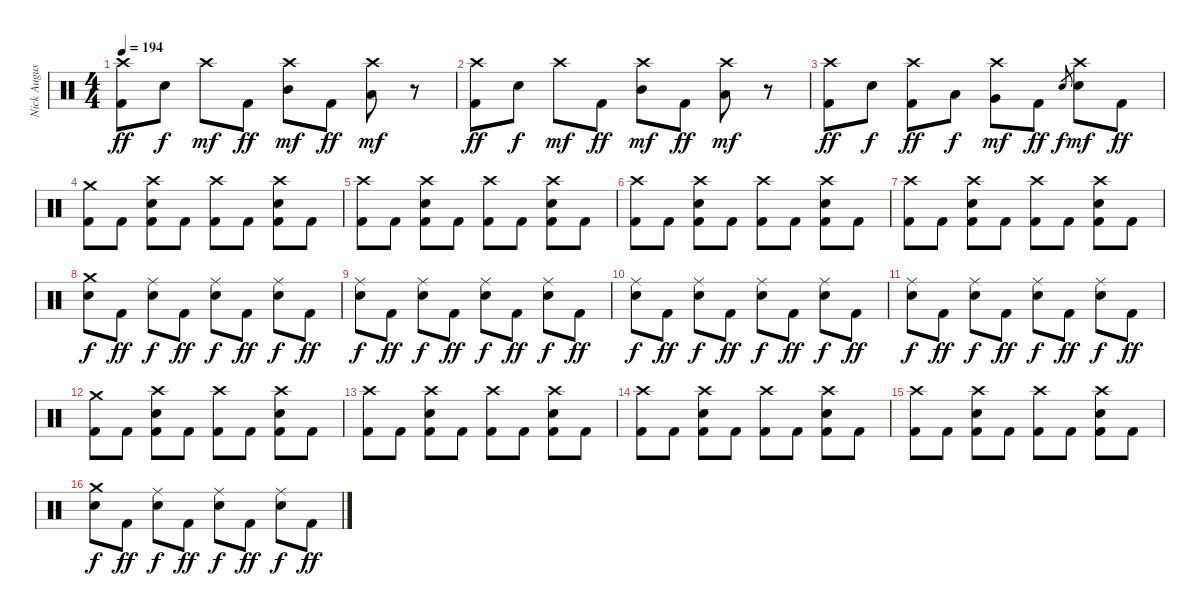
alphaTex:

\track ("Nick Augusto" "Nick Augus") {instrument percussion}
\staff {score}
\articulation defaults
\ts (4 4)
\tempo 194
\clef neutral
\ks c
("Crash high (hit)" "Kick (hit) 2").8{dy ff} "Electric Snare (hit)".8{dy f} "Crash high (hit)".8{dy mf} "Kick (hit) 2".8{dy ff} ("Crash high (hit)" "Mid Tom (hit)").8{dy mf} "Kick (hit) 2".8{dy ff} ("Crash high (hit)" "Low Tom (hit)").8{dy mf} r.8 |
("Crash high (hit)" "Kick (hit) 2").8{dy ff} "Electric Snare (hit)".8{dy f} "Crash high (hit)".8{dy mf} "Kick (hit) 2".8{dy ff} ("Crash high (hit)" "Mid Tom (hit)").8{dy mf} "Kick (hit) 2".8{dy ff} ("Crash high (hit)" "Low Tom (hit)").8{dy mf} r.8 |
("Crash high (hit)" "Kick (hit) 2").8{dy ff} "Electric Snare (hit)".8{dy f} ("Crash high (hit)" "Kick (hit) 2").8{dy ff} "Low Tom (hit)".8{dy f} ("Crash high (hit)" "Very Low Tom (hit)").8{dy mf} "Kick (hit) 2".8{dy ff} "Electric Snare (hit)".8{gr dy f} ("Crash high (hit)" "Electric Snare (hit)").8{dy mf} "Kick (hit) 2".8{dy ff} |
("Crash medium (hit)" "Kick (hit) 2").8 "Kick (hit) 2".8 ("Crash high (hit)" "Electric Snare (hit)" "Kick (hit) 2").8 "Kick (hit) 2".8 ("Crash high (hit)" "Kick (hit) 2").8 "Kick (hit) 2".8 ("Crash high (hit)" "Electric Snare (hit)" "Kick (hit) 2").8 "Kick (hit) 2".8 |
("Crash high (hit)" "Kick (hit) 2").8 "Kick (hit) 2".8 ("Crash high (hit)" "Electric Snare (hit)" "Kick (hit) 2").8 "Kick (hit) 2".8 ("Crash high (hit)" "Kick (hit) 2").8 "Kick (hit) 2".8 ("Crash high (hit)" "Electric Snare (hit)" "Kick (hit) 2").8 "Kick (hit) 2".8 |
("Crash high (hit)" "Kick (hit) 2").8 "Kick (hit) 2".8 ("Crash high (hit)" "Electric Snare (hit)" "Kick (hit) 2").8 "Kick (hit) 2".8 ("Crash high (hit)" "Kick (hit) 2").8 "Kick (hit) 2".8 ("Crash high (hit)" "Electric Snare (hit)" "Kick (hit) 2").8 "Kick (hit) 2".8 |
("Crash high (hit)" "Kick (hit) 2").8 "Kick (hit) 2".8 ("Crash high (hit)" "Electric Snare (hit)" "Kick (hit) 2").8 "Kick (hit) 2".8 ("Crash high (hit)" "Kick (hit) 2").8 "Kick (hit) 2".8 ("Crash high (hit)" "Electric Snare (hit)" "Kick (hit) 2").8 "Kick (hit) 2".8 |
("Crash medium (hit)" "Electric Snare (hit)").8{dy f} "Kick (hit) 2".8{dy ff} ("Ride (middle)" "Electric Snare (hit)").8{dy f} "Kick (hit) 2".8{dy ff} ("Ride (middle)" "Electric Snare (hit)").8{dy f} "Kick (hit) 2".8{dy ff} ("Ride (middle)" "Electric Snare (hit)").8{dy f} "Kick (hit) 2".8{dy ff} |
("Ride (middle)" "Electric Snare (hit)").8{dy f} "Kick (hit) 2".8{dy ff} ("Ride (middle)" "Electric Snare (hit)").8{dy f} "Kick (hit) 2".8{dy ff} ("Ride (middle)" "Electric Snare (hit)").8{dy f} "Kick (hit) 2".8{dy ff} ("Ride (middle)" "Electric Snare (hit)").8{dy f} "Kick (hit) 2".8{dy ff} |
("Ride (middle)" "Electric Snare (hit)").8{dy f} "Kick (hit) 2".8{dy ff} ("Ride (middle)" "Electric Snare (hit)").8{dy f} "Kick (hit) 2".8{dy ff} ("Ride (middle)" "Electric Snare (hit)").8{dy f} "Kick (hit) 2".8{dy ff} ("Ride (middle)" "Electric Snare (hit)").8{dy f} "Kick (hit) 2".8{dy ff} |
("Ride (middle)" "Electric Snare (hit)").8{dy f} "Kick (hit) 2".8{dy ff} ("Ride (middle)" "Electric Snare (hit)").8{dy f} "Kick (hit) 2".8{dy ff} ("Ride (middle)" "Electric Snare (hit)").8{dy f} "Kick (hit) 2".8{dy ff} ("Ride (middle)" "Electric Snare (hit)").8{dy f} "Kick (hit) 2".8{dy ff} |
("Crash medium (hit)" "Kick (hit) 2").8 "Kick (hit) 2".8 ("Crash high (hit)" "Electric Snare (hit)" "Kick (hit) 2").8 "Kick (hit) 2".8 ("Crash high (hit)" "Kick (hit) 2").8 "Kick (hit) 2".8 ("Crash high (hit)" "Electric Snare (hit)" "Kick (hit) 2").8 "Kick (hit) 2".8 |
("Crash high (hit)" "Kick (hit) 2").8 "Kick (hit) 2".8 ("Crash high (hit)" "Electric Snare (hit)" "Kick (hit) 2").8 "Kick (hit) 2".8 ("Crash high (hit)" "Kick (hit) 2").8 "Kick (hit) 2".8 ("Crash high (hit)" "Electric Snare (hit)" "Kick (hit) 2").8 "Kick (hit) 2".8 |
("Crash high (hit)" "Kick (hit) 2").8 "Kick (hit) 2".8 ("Crash high (hit)" "Electric Snare (hit)" "Kick (hit) 2").8 "Kick (hit) 2".8 ("Crash high (hit)" "Kick (hit) 2").8 "Kick (hit) 2".8 ("Crash high (hit)" "Electric Snare (hit)" "Kick (hit) 2").8 "Kick (hit) 2".8 |
("Crash high (hit)" "Kick (hit) 2").8 "Kick (hit) 2".8 ("Crash high (hit)" "Electric Snare (hit)" "Kick (hit) 2").8 "Kick (hit) 2".8 ("Crash high (hit)" "Kick (hit) 2").8 "Kick (hit) 2".8 ("Crash high (hit)" "Electric Snare (hit)" "Kick (hit) 2").8 "Kick (hit) 2".8 |
("Crash medium (hit)" "Electric Snare (hit)").8{dy f} "Kick (hit) 2".8{dy ff} ("Ride (middle)" "Electric Snare (hit)").8{dy f} "Kick (hit) 2".8{dy ff} ("Ride (middle)" "Electric Snare (hit)").8{dy f} "Kick (hit) 2".8{dy ff} ("Ride (middle)" "Electric Snare (hit)").8{dy f} "Kick (hit) 2".8{dy ff}
